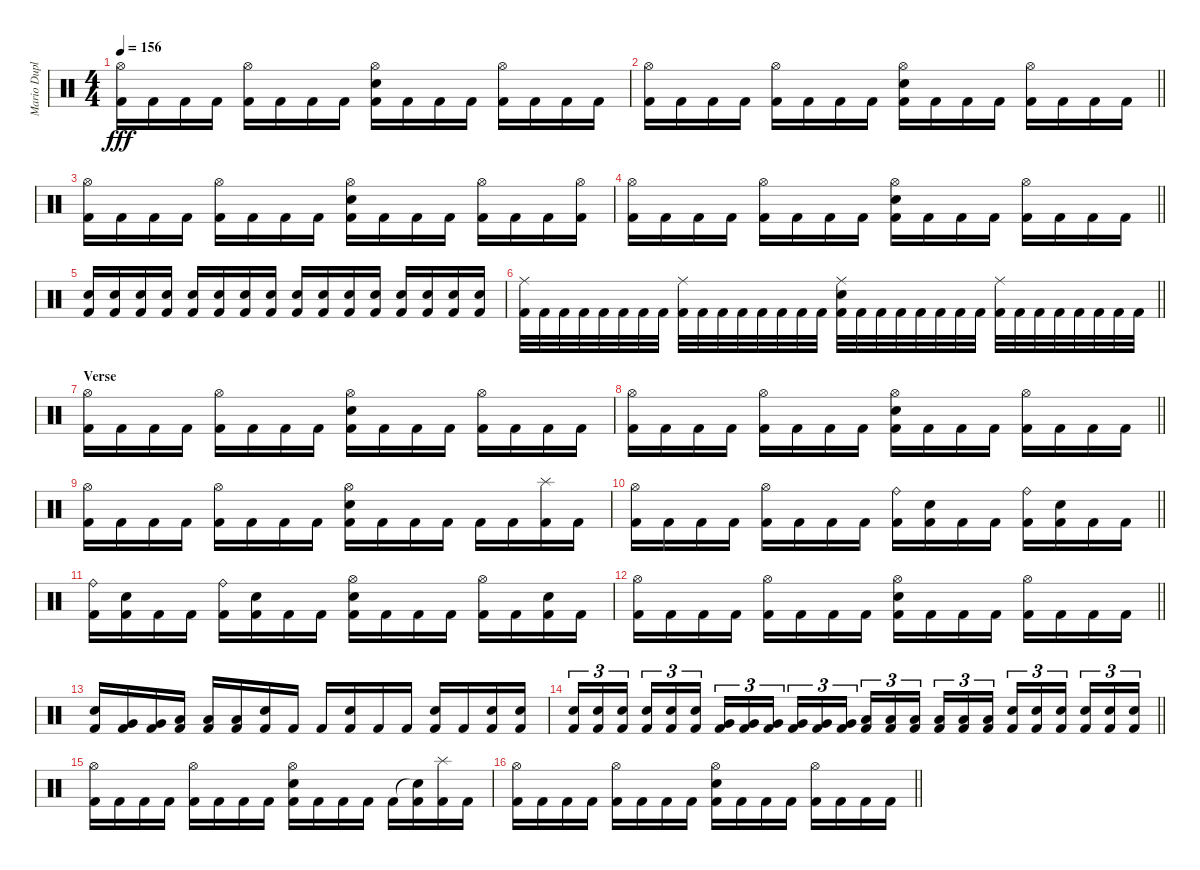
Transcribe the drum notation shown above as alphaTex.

\track ("Mario Duplantier" "Mario Dupl") {instrument percussion}
\staff {score}
\articulation defaults
\ts (4 4)
\tempo 156
\clef neutral
\ks c
("Hi-Hat (open)" "Kick (hit) 2").16{dy fff} "Kick (hit) 2".16 "Kick (hit) 2".16 "Kick (hit) 2".16 ("Hi-Hat (open)" "Kick (hit) 2").16 "Kick (hit) 2".16 "Kick (hit) 2".16 "Kick (hit) 2".16 ("Hi-Hat (open)" "Electric Snare (hit)" "Kick (hit) 2").16 "Kick (hit) 2".16 "Kick (hit) 2".16 "Kick (hit) 2".16 ("Hi-Hat (open)" "Kick (hit) 2").16 "Kick (hit) 2".16 "Kick (hit) 2".16 "Kick (hit) 2".16 |
\barLineRight lightlight
("Hi-Hat (open)" "Kick (hit) 2").16 "Kick (hit) 2".16 "Kick (hit) 2".16 "Kick (hit) 2".16 ("Hi-Hat (open)" "Kick (hit) 2").16 "Kick (hit) 2".16 "Kick (hit) 2".16 "Kick (hit) 2".16 ("Hi-Hat (open)" "Electric Snare (hit)" "Kick (hit) 2").16 "Kick (hit) 2".16 "Kick (hit) 2".16 "Kick (hit) 2".16 ("Hi-Hat (open)" "Kick (hit) 2").16 "Kick (hit) 2".16 "Kick (hit) 2".16 "Kick (hit) 2".16 |
("Hi-Hat (open)" "Kick (hit) 2").16 "Kick (hit) 2".16 "Kick (hit) 2".16 "Kick (hit) 2".16 ("Hi-Hat (open)" "Kick (hit) 2").16 "Kick (hit) 2".16 "Kick (hit) 2".16 "Kick (hit) 2".16 ("Hi-Hat (open)" "Electric Snare (hit)" "Kick (hit) 2").16 "Kick (hit) 2".16 "Kick (hit) 2".16 "Kick (hit) 2".16 ("Hi-Hat (open)" "Kick (hit) 2").16 "Kick (hit) 2".16 "Kick (hit) 2".16 ("Hi-Hat (open)" "Kick (hit) 2").16 |
\barLineRight lightlight
("Hi-Hat (open)" "Kick (hit) 2").16 "Kick (hit) 2".16 "Kick (hit) 2".16 "Kick (hit) 2".16 ("Hi-Hat (open)" "Kick (hit) 2").16 "Kick (hit) 2".16 "Kick (hit) 2".16 "Kick (hit) 2".16 ("Hi-Hat (open)" "Electric Snare (hit)" "Kick (hit) 2").16 "Kick (hit) 2".16 "Kick (hit) 2".16 "Kick (hit) 2".16 ("Hi-Hat (open)" "Kick (hit) 2").16 "Kick (hit) 2".16 "Kick (hit) 2".16 "Kick (hit) 2".16 |
("Electric Snare (hit)" "Kick (hit) 2").16 ("Electric Snare (hit)" "Kick (hit) 2").16 ("Electric Snare (hit)" "Kick (hit) 2").16 ("Electric Snare (hit)" "Kick (hit) 2").16 ("Electric Snare (hit)" "Kick (hit) 2").16 ("Electric Snare (hit)" "Kick (hit) 2").16 ("Electric Snare (hit)" "Kick (hit) 2").16 ("Electric Snare (hit)" "Kick (hit) 2").16 ("Electric Snare (hit)" "Kick (hit) 2").16 ("Electric Snare (hit)" "Kick (hit) 2").16 ("Electric Snare (hit)" "Kick (hit) 2").16 ("Electric Snare (hit)" "Kick (hit) 2").16 ("Electric Snare (hit)" "Kick (hit) 2").16 ("Electric Snare (hit)" "Kick (hit) 2").16 ("Electric Snare (hit)" "Kick (hit) 2").16 ("Electric Snare (hit)" "Kick (hit) 2").16 |
\barLineRight lightlight
("Ride (middle)" "Kick (hit) 2").32 "Kick (hit) 2".32 "Kick (hit) 2".32 "Kick (hit) 2".32 "Kick (hit) 2".32 "Kick (hit) 2".32 "Kick (hit) 2".32 "Kick (hit) 2".32 ("Ride (middle)" "Kick (hit) 2").32 "Kick (hit) 2".32 "Kick (hit) 2".32 "Kick (hit) 2".32 "Kick (hit) 2".32 "Kick (hit) 2".32 "Kick (hit) 2".32 "Kick (hit) 2".32 ("Ride (middle)" "Electric Snare (hit)" "Kick (hit) 2").32 "Kick (hit) 2".32 "Kick (hit) 2".32 "Kick (hit) 2".32 "Kick (hit) 2".32 "Kick (hit) 2".32 "Kick (hit) 2".32 "Kick (hit) 2".32 ("Ride (middle)" "Kick (hit) 2").32 "Kick (hit) 2".32 "Kick (hit) 2".32 "Kick (hit) 2".32 "Kick (hit) 2".32 "Kick (hit) 2".32 "Kick (hit) 2".32 "Kick (hit) 2".32 |
\section ("" "Verse")
("Hi-Hat (open)" "Kick (hit) 2").16 "Kick (hit) 2".16 "Kick (hit) 2".16 "Kick (hit) 2".16 ("Hi-Hat (open)" "Kick (hit) 2").16 "Kick (hit) 2".16 "Kick (hit) 2".16 "Kick (hit) 2".16 ("Hi-Hat (open)" "Electric Snare (hit)" "Kick (hit) 2").16 "Kick (hit) 2".16 "Kick (hit) 2".16 "Kick (hit) 2".16 ("Hi-Hat (open)" "Kick (hit) 2").16 "Kick (hit) 2".16 "Kick (hit) 2".16 "Kick (hit) 2".16 |
\barLineRight lightlight
("Hi-Hat (open)" "Kick (hit) 2").16 "Kick (hit) 2".16 "Kick (hit) 2".16 "Kick (hit) 2".16 ("Hi-Hat (open)" "Kick (hit) 2").16 "Kick (hit) 2".16 "Kick (hit) 2".16 "Kick (hit) 2".16 ("Hi-Hat (open)" "Electric Snare (hit)" "Kick (hit) 2").16 "Kick (hit) 2".16 "Kick (hit) 2".16 "Kick (hit) 2".16 ("Hi-Hat (open)" "Kick (hit) 2").16 "Kick (hit) 2".16 "Kick (hit) 2".16 "Kick (hit) 2".16 |
("Hi-Hat (open)" "Kick (hit) 2").16 "Kick (hit) 2".16 "Kick (hit) 2".16 "Kick (hit) 2".16 ("Hi-Hat (open)" "Kick (hit) 2").16 "Kick (hit) 2".16 "Kick (hit) 2".16 "Kick (hit) 2".16 ("Hi-Hat (open)" "Electric Snare (hit)" "Kick (hit) 2").16 "Kick (hit) 2".16 "Kick (hit) 2".16 "Kick (hit) 2".16 "Kick (hit) 2".16 "Kick (hit) 2".16 ("Splash (hit)" "Kick (hit) 2").16 "Kick (hit) 2".16 |
\barLineRight lightlight
("Hi-Hat (open)" "Kick (hit) 2").16 "Kick (hit) 2".16 "Kick (hit) 2".16 "Kick (hit) 2".16 ("Hi-Hat (open)" "Kick (hit) 2").16 "Kick (hit) 2".16 "Kick (hit) 2".16 "Kick (hit) 2".16 ("Ride (bell)" "Kick (hit) 2").16 ("Electric Snare (hit)" "Kick (hit) 2").16 "Kick (hit) 2".16 "Kick (hit) 2".16 ("Ride (bell)" "Kick (hit) 2").16 ("Electric Snare (hit)" "Kick (hit) 2").16 "Kick (hit) 2".16 "Kick (hit) 2".16 |
("Ride (bell)" "Kick (hit) 2").16 ("Electric Snare (hit)" "Kick (hit) 2").16 "Kick (hit) 2".16 "Kick (hit) 2".16 ("Ride (bell)" "Kick (hit) 2").16 ("Electric Snare (hit)" "Kick (hit) 2").16 "Kick (hit) 2".16 "Kick (hit) 2".16 ("Hi-Hat (open)" "Electric Snare (hit)" "Kick (hit) 2").16 "Kick (hit) 2".16 "Kick (hit) 2".16 "Kick (hit) 2".16 ("Hi-Hat (open)" "Kick (hit) 2").16 "Kick (hit) 2".16 ("Electric Snare (hit)" "Kick (hit) 2").16 "Kick (hit) 2".16 |
\barLineRight lightlight
("Hi-Hat (open)" "Kick (hit) 2").16 "Kick (hit) 2".16 "Kick (hit) 2".16 "Kick (hit) 2".16 ("Hi-Hat (open)" "Kick (hit) 2").16 "Kick (hit) 2".16 "Kick (hit) 2".16 "Kick (hit) 2".16 ("Hi-Hat (open)" "Electric Snare (hit)" "Kick (hit) 2").16 "Kick (hit) 2".16 "Kick (hit) 2".16 "Kick (hit) 2".16 ("Hi-Hat (open)" "Kick (hit) 2").16 "Kick (hit) 2".16 "Kick (hit) 2".16 "Kick (hit) 2".16 |
("Electric Snare (hit)" "Kick (hit) 2").16 ("Very Low Tom (hit)" "Kick (hit) 2").16 ("Very Low Tom (hit)" "Kick (hit) 2").16 ("Low Floor Tom (hit)" "Kick (hit) 2").16 ("Low Floor Tom (hit)" "Kick (hit) 2").16 ("Low Floor Tom (hit)" "Kick (hit) 2").16 ("Electric Snare (hit)" "Kick (hit) 2").16 "Kick (hit) 2".16 "Kick (hit) 2".16 ("Electric Snare (hit)" "Kick (hit) 2").16 "Kick (hit) 2".16 "Kick (hit) 2".16 ("Electric Snare (hit)" "Kick (hit) 2").16 "Kick (hit) 2".16 ("Electric Snare (hit)" "Kick (hit) 2").16 ("Electric Snare (hit)" "Kick (hit) 2").16 |
\barLineRight lightlight
("Electric Snare (hit)" "Kick (hit) 2").16{tu (3 2)} ("Electric Snare (hit)" "Kick (hit) 2").16{tu (3 2)} ("Electric Snare (hit)" "Kick (hit) 2").16{tu (3 2) beam splitsecondary} ("Electric Snare (hit)" "Kick (hit) 2").16{tu (3 2)} ("Electric Snare (hit)" "Kick (hit) 2").16{tu (3 2)} ("Electric Snare (hit)" "Kick (hit) 2").16{tu (3 2)} ("Very Low Tom (hit)" "Kick (hit) 2").16{tu (3 2)} ("Very Low Tom (hit)" "Kick (hit) 2").16{tu (3 2)} ("Very Low Tom (hit)" "Kick (hit) 2").16{tu (3 2) beam splitsecondary} ("Very Low Tom (hit)" "Kick (hit) 2").16{tu (3 2)} ("Very Low Tom (hit)" "Kick (hit) 2").16{tu (3 2)} ("Very Low Tom (hit)" "Kick (hit) 2").16{tu (3 2)} ("Low Floor Tom (hit)" "Kick (hit) 2").16{tu (3 2)} ("Low Floor Tom (hit)" "Kick (hit) 2").16{tu (3 2)} ("Low Floor Tom (hit)" "Kick (hit) 2").16{tu (3 2) beam splitsecondary} ("Low Floor Tom (hit)" "Kick (hit) 2").16{tu (3 2)} ("Low Floor Tom (hit)" "Kick (hit) 2").16{tu (3 2)} ("Low Floor Tom (hit)" "Kick (hit) 2").16{tu (3 2)} ("Electric Snare (hit)" "Kick (hit) 2").16{tu (3 2)} ("Electric Snare (hit)" "Kick (hit) 2").16{tu (3 2)} ("Electric Snare (hit)" "Kick (hit) 2").16{tu (3 2) beam splitsecondary} ("Electric Snare (hit)" "Kick (hit) 2").16{tu (3 2)} ("Electric Snare (hit)" "Kick (hit) 2").16{tu (3 2)} ("Electric Snare (hit)" "Kick (hit) 2").16{tu (3 2)} |
\section ("" "")
("Hi-Hat (open)" "Kick (hit) 2").16 "Kick (hit) 2".16 "Kick (hit) 2".16 "Kick (hit) 2".16 ("Hi-Hat (open)" "Kick (hit) 2").16 "Kick (hit) 2".16 "Kick (hit) 2".16 "Kick (hit) 2".16 ("Hi-Hat (open)" "Electric Snare (hit)" "Kick (hit) 2").16 "Kick (hit) 2".16 "Kick (hit) 2".16 "Kick (hit) 2".16 "Kick (hit) 2".16 ("Snare (hit)"{t} "Kick (hit) 2").16 ("Splash (hit)" "Kick (hit) 2").16 "Kick (hit) 2".16 |
\barLineRight lightlight
("Hi-Hat (open)" "Kick (hit) 2").16 "Kick (hit) 2".16 "Kick (hit) 2".16 "Kick (hit) 2".16 ("Hi-Hat (open)" "Kick (hit) 2").16 "Kick (hit) 2".16 "Kick (hit) 2".16 "Kick (hit) 2".16 ("Hi-Hat (open)" "Electric Snare (hit)" "Kick (hit) 2").16 "Kick (hit) 2".16 "Kick (hit) 2".16 "Kick (hit) 2".16 ("Hi-Hat (open)" "Kick (hit) 2").16 "Kick (hit) 2".16 "Kick (hit) 2".16 "Kick (hit) 2".16
